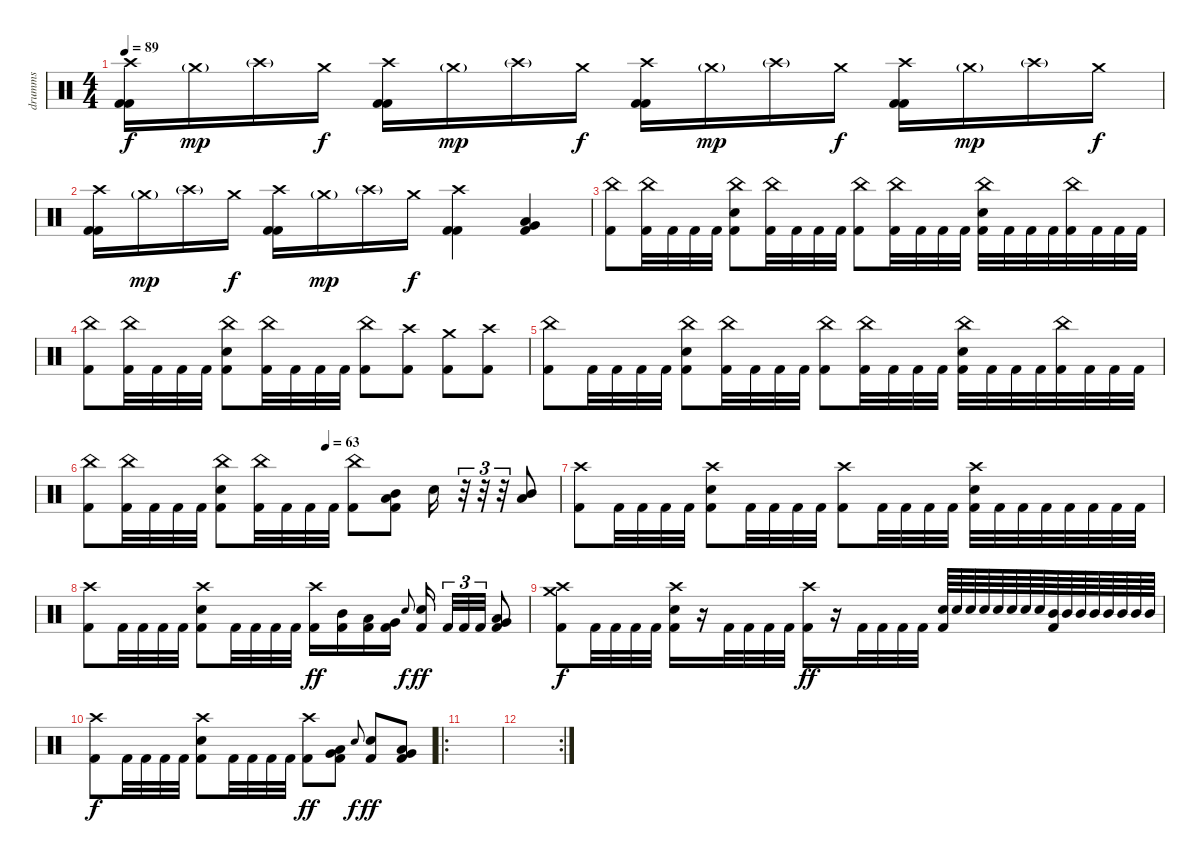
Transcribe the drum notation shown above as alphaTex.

\track ("drumms" "drumms") {instrument percussion}
\staff {score}
\articulation defaults
\ts (4 4)
\tempo 89
\clef neutral
\ks c
("Crash high (hit)" "Kick (hit) 2" "Kick (hit) 2").16{dy f} "Crash medium (hit)"{g}.16{dy mp} "Crash high (hit)"{g}.16 "Crash medium (hit)".16{dy f} ("Crash high (hit)" "Kick (hit) 2" "Kick (hit) 2").16 "Crash medium (hit)"{g}.16{dy mp} "Crash high (hit)"{g}.16 "Crash medium (hit)".16{dy f} ("Crash high (hit)" "Kick (hit) 2" "Kick (hit) 2").16 "Crash medium (hit)"{g}.16{dy mp} "Crash high (hit)"{g}.16 "Crash medium (hit)".16{dy f} ("Crash high (hit)" "Kick (hit) 2" "Kick (hit) 2").16 "Crash medium (hit)"{g}.16{dy mp} "Crash high (hit)"{g}.16 "Crash medium (hit)".16{dy f} |
("Crash high (hit)" "Kick (hit) 2" "Kick (hit) 2").16 "Crash medium (hit)"{g}.16{dy mp} "Crash high (hit)"{g}.16 "Crash medium (hit)".16{dy f} ("Crash high (hit)" "Kick (hit) 2" "Kick (hit) 2").16 "Crash medium (hit)"{g}.16{dy mp} "Crash high (hit)"{g}.16 "Crash medium (hit)".16{dy f} ("Crash high (hit)" "Kick (hit) 2" "Kick (hit) 2").4 ("Very Low Tom (hit)" "Low Floor Tom (hit)" "Kick (hit) 2").4 |
("China (hit)" "Kick (hit) 2").8 ("China (hit)" "Kick (hit) 2").32 "Kick (hit) 2".32 "Kick (hit) 2".32 "Kick (hit) 2".32 ("China (hit)" "Electric Snare (hit)" "Kick (hit) 2").8 ("China (hit)" "Kick (hit) 2").32 "Kick (hit) 2".32 "Kick (hit) 2".32 "Kick (hit) 2".32 ("China (hit)" "Kick (hit) 2").8 ("China (hit)" "Kick (hit) 2").32 "Kick (hit) 2".32 "Kick (hit) 2".32 "Kick (hit) 2".32 ("China (hit)" "Electric Snare (hit)" "Kick (hit) 2").32 "Kick (hit) 2".32 "Kick (hit) 2".32 "Kick (hit) 2".32 ("China (hit)" "Kick (hit) 2").32 "Kick (hit) 2".32 "Kick (hit) 2".32 "Kick (hit) 2".32 |
("China (hit)" "Kick (hit) 2").8 ("China (hit)" "Kick (hit) 2").32 "Kick (hit) 2".32 "Kick (hit) 2".32 "Kick (hit) 2".32 ("China (hit)" "Electric Snare (hit)" "Kick (hit) 2").8 ("China (hit)" "Kick (hit) 2").32 "Kick (hit) 2".32 "Kick (hit) 2".32 "Kick (hit) 2".32 ("China (hit)" "Kick (hit) 2").8 ("Crash high (hit)" "Kick (hit) 2").8 ("Crash medium (hit)" "Kick (hit) 2").8 ("Crash high (hit)" "Kick (hit) 2").8 |
("China (hit)" "Kick (hit) 2").8 "Kick (hit) 2".32 "Kick (hit) 2".32 "Kick (hit) 2".32 "Kick (hit) 2".32 ("China (hit)" "Electric Snare (hit)" "Kick (hit) 2").8 ("China (hit)" "Kick (hit) 2").32 "Kick (hit) 2".32 "Kick (hit) 2".32 "Kick (hit) 2".32 ("China (hit)" "Kick (hit) 2").8 ("China (hit)" "Kick (hit) 2").32 "Kick (hit) 2".32 "Kick (hit) 2".32 "Kick (hit) 2".32 ("China (hit)" "Electric Snare (hit)" "Kick (hit) 2").32 "Kick (hit) 2".32 "Kick (hit) 2".32 "Kick (hit) 2".32 ("China (hit)" "Kick (hit) 2").32 "Kick (hit) 2".32 "Kick (hit) 2".32 "Kick (hit) 2".32 |
\tempo (63 0.5)
("China (hit)" "Kick (hit) 2").8 ("China (hit)" "Kick (hit) 2").32 "Kick (hit) 2".32 "Kick (hit) 2".32 "Kick (hit) 2".32 ("China (hit)" "Electric Snare (hit)" "Kick (hit) 2").8 ("China (hit)" "Kick (hit) 2").32 "Kick (hit) 2".32 "Kick (hit) 2".32 "Kick (hit) 2".32 ("China (hit)" "Kick (hit) 2").8 ("Mid Tom (hit)" "Low Tom (hit)" "Kick (hit) 2").8 "Electric Snare (hit)".16 r.32{tu (3 2)} r.32{tu (3 2)} r.32{tu (3 2)} ("Low Tom (hit)" "Mid Tom (hit)").8 |
("Crash high (hit)" "Kick (hit) 2").8 "Kick (hit) 2".32 "Kick (hit) 2".32 "Kick (hit) 2".32 "Kick (hit) 2".32 ("Crash high (hit)" "Electric Snare (hit)" "Kick (hit) 2").8 "Kick (hit) 2".32 "Kick (hit) 2".32 "Kick (hit) 2".32 "Kick (hit) 2".32 ("Crash high (hit)" "Kick (hit) 2").8 "Kick (hit) 2".32 "Kick (hit) 2".32 "Kick (hit) 2".32 "Kick (hit) 2".32 ("Crash high (hit)" "Electric Snare (hit)" "Kick (hit) 2").32 "Kick (hit) 2".32 "Kick (hit) 2".32 "Kick (hit) 2".32 "Kick (hit) 2".32 "Kick (hit) 2".32 "Kick (hit) 2".32 "Kick (hit) 2".32 |
("Crash high (hit)" "Kick (hit) 2").8 "Kick (hit) 2".32 "Kick (hit) 2".32 "Kick (hit) 2".32 "Kick (hit) 2".32 ("Crash high (hit)" "Electric Snare (hit)" "Kick (hit) 2").8 "Kick (hit) 2".32 "Kick (hit) 2".32 "Kick (hit) 2".32 "Kick (hit) 2".32 ("Crash high (hit)" "Kick (hit) 2").16{dy ff} ("Mid Tom (hit)" "Kick (hit) 2").16 ("Low Tom (hit)" "Kick (hit) 2").16 ("Very Low Tom (hit)" "Kick (hit) 2").16 "Electric Snare (hit)"{sl x}.8{gr onbeat dy f} ("Electric Snare (hit)" "Kick (hit) 2").16{dy ff beam splitsecondary} "Kick (hit) 2".32{tu (3 2)} "Kick (hit) 2".32{tu (3 2)} "Kick (hit) 2".32{tu (3 2)} ("Very Low Tom (hit)" "Low Floor Tom (hit)" "Kick (hit) 2").8 |
("Crash high (hit)" "Crash medium (hit)" "Kick (hit) 2").8{dy f} "Kick (hit) 2".32 "Kick (hit) 2".32 "Kick (hit) 2".32 "Kick (hit) 2".32 ("Crash high (hit)" "Electric Snare (hit)" "Kick (hit) 2").16 r.16 "Kick (hit) 2".32 "Kick (hit) 2".32 "Kick (hit) 2".32 "Kick (hit) 2".32 ("Crash high (hit)" "Kick (hit) 2").16{dy ff} r.16 "Kick (hit) 2".32 "Kick (hit) 2".32 "Kick (hit) 2".32 "Kick (hit) 2".32 ("Electric Snare (hit)" "Kick (hit) 2").64 "Electric Snare (hit)".64 "Electric Snare (hit)".64 "Electric Snare (hit)".64 "Electric Snare (hit)".64 "Electric Snare (hit)".64 "Electric Snare (hit)".64 "Electric Snare (hit)".64 ("Mid Tom (hit)" "Kick (hit) 2").64 "Mid Tom (hit)".64 "Mid Tom (hit)".64 "Mid Tom (hit)".64 "Mid Tom (hit)".64 "Mid Tom (hit)".64 "Mid Tom (hit)".64 "Mid Tom (hit)".64 |
("Crash high (hit)" "Kick (hit) 2").8{dy f} "Kick (hit) 2".32 "Kick (hit) 2".32 "Kick (hit) 2".32 "Kick (hit) 2".32 ("Crash high (hit)" "Electric Snare (hit)" "Kick (hit) 2").8 "Kick (hit) 2".32 "Kick (hit) 2".32 "Kick (hit) 2".32 "Kick (hit) 2".32 ("Crash high (hit)" "Kick (hit) 2").8{dy ff} ("Low Tom (hit)" "Very Low Tom (hit)" "Kick (hit) 2").8 "Electric Snare (hit)"{sl x}.8{gr onbeat dy f} ("Electric Snare (hit)" "Kick (hit) 2").8{dy ff} ("Very Low Tom (hit)" "Low Floor Tom (hit)" "Kick (hit) 2").8 |
\ro
|
\rc 2
